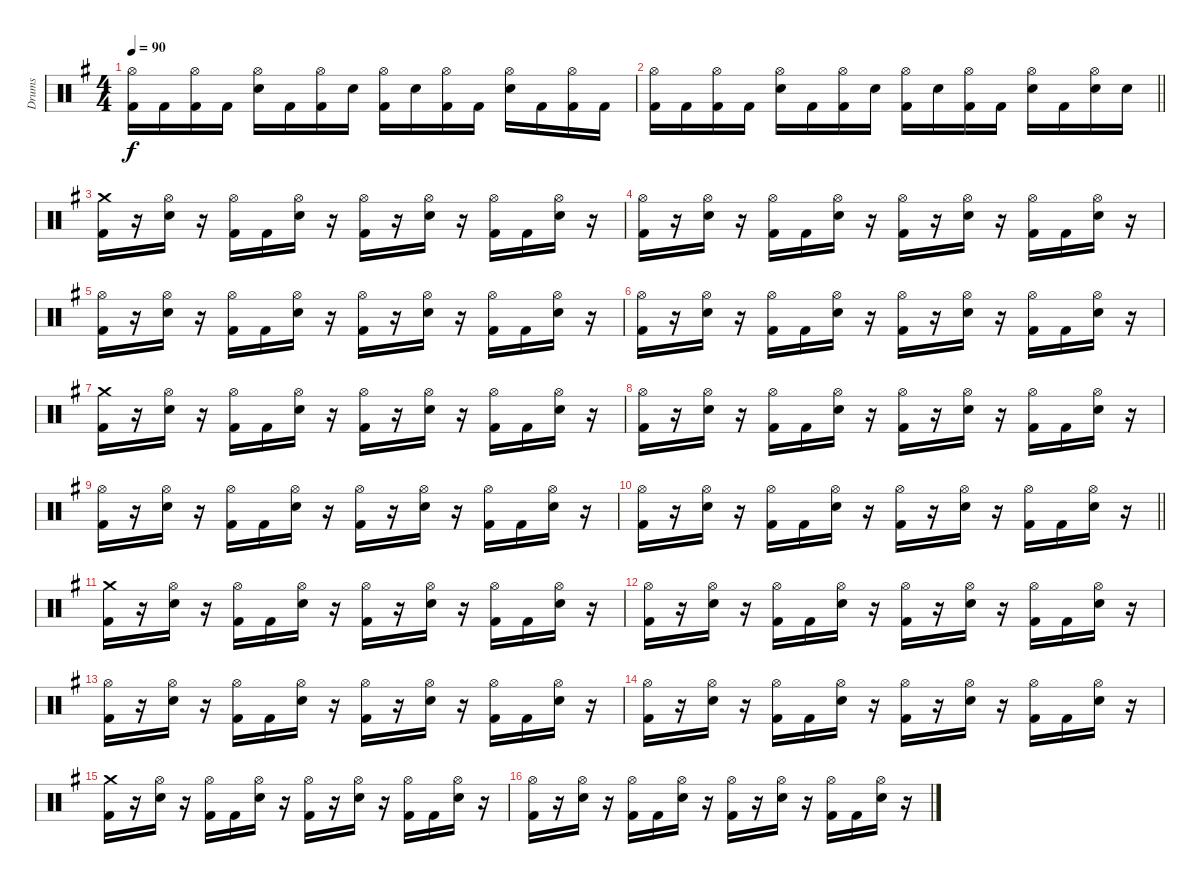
\track ("Drums" "Drums") {instrument percussion}
\staff {score}
\articulation defaults
\ts (4 4)
\tempo 90
\clef neutral
\ks eminor
("Kick (hit) 2" "Hi-Hat (open)").16{dy f} "Kick (hit) 2".16 ("Kick (hit) 2" "Hi-Hat (open)").16 "Kick (hit) 2".16 ("Electric Snare (hit)" "Hi-Hat (open)").16 "Kick (hit) 2".16 ("Kick (hit) 2" "Hi-Hat (open)").16 "Electric Snare (hit)".16 ("Kick (hit) 2" "Hi-Hat (open)").16 "Electric Snare (hit)".16 ("Kick (hit) 2" "Hi-Hat (open)").16 "Kick (hit) 2".16 ("Electric Snare (hit)" "Hi-Hat (open)").16 "Kick (hit) 2".16 ("Kick (hit) 2" "Hi-Hat (open)").16 "Kick (hit) 2".16 |
\barLineRight lightlight
("Kick (hit) 2" "Hi-Hat (open)").16 "Kick (hit) 2".16 ("Kick (hit) 2" "Hi-Hat (open)").16 "Kick (hit) 2".16 ("Electric Snare (hit)" "Hi-Hat (open)").16 "Kick (hit) 2".16 ("Kick (hit) 2" "Hi-Hat (open)").16 "Electric Snare (hit)".16 ("Kick (hit) 2" "Hi-Hat (open)").16 "Electric Snare (hit)".16 ("Kick (hit) 2" "Hi-Hat (open)").16 "Kick (hit) 2".16 ("Electric Snare (hit)" "Hi-Hat (open)").16 "Kick (hit) 2".16 ("Electric Snare (hit)" "Hi-Hat (open)").16 "Electric Snare (hit)".16 |
("Kick (hit) 2" "Crash medium (hit)").16 r.16 ("Electric Snare (hit)" "Hi-Hat (open)").16 r.16 ("Kick (hit) 2" "Hi-Hat (open)").16 "Kick (hit) 2".16 ("Electric Snare (hit)" "Hi-Hat (open)").16 r.16 ("Kick (hit) 2" "Hi-Hat (open)").16 r.16 ("Electric Snare (hit)" "Hi-Hat (open)").16 r.16 ("Kick (hit) 2" "Hi-Hat (open)").16 "Kick (hit) 2".16 ("Electric Snare (hit)" "Hi-Hat (open)").16 r.16 |
("Kick (hit) 2" "Hi-Hat (open)").16 r.16 ("Electric Snare (hit)" "Hi-Hat (open)").16 r.16 ("Kick (hit) 2" "Hi-Hat (open)").16 "Kick (hit) 2".16 ("Electric Snare (hit)" "Hi-Hat (open)").16 r.16 ("Kick (hit) 2" "Hi-Hat (open)").16 r.16 ("Electric Snare (hit)" "Hi-Hat (open)").16 r.16 ("Kick (hit) 2" "Hi-Hat (open)").16 "Kick (hit) 2".16 ("Electric Snare (hit)" "Hi-Hat (open)").16 r.16 |
("Kick (hit) 2" "Hi-Hat (open)").16 r.16 ("Electric Snare (hit)" "Hi-Hat (open)").16 r.16 ("Kick (hit) 2" "Hi-Hat (open)").16 "Kick (hit) 2".16 ("Electric Snare (hit)" "Hi-Hat (open)").16 r.16 ("Kick (hit) 2" "Hi-Hat (open)").16 r.16 ("Electric Snare (hit)" "Hi-Hat (open)").16 r.16 ("Kick (hit) 2" "Hi-Hat (open)").16 "Kick (hit) 2".16 ("Electric Snare (hit)" "Hi-Hat (open)").16 r.16 |
("Kick (hit) 2" "Hi-Hat (open)").16 r.16 ("Electric Snare (hit)" "Hi-Hat (open)").16 r.16 ("Kick (hit) 2" "Hi-Hat (open)").16 "Kick (hit) 2".16 ("Electric Snare (hit)" "Hi-Hat (open)").16 r.16 ("Kick (hit) 2" "Hi-Hat (open)").16 r.16 ("Electric Snare (hit)" "Hi-Hat (open)").16 r.16 ("Kick (hit) 2" "Hi-Hat (open)").16 "Kick (hit) 2".16 ("Electric Snare (hit)" "Hi-Hat (open)").16 r.16 |
("Kick (hit) 2" "Crash medium (hit)").16 r.16 ("Electric Snare (hit)" "Hi-Hat (open)").16 r.16 ("Kick (hit) 2" "Hi-Hat (open)").16 "Kick (hit) 2".16 ("Electric Snare (hit)" "Hi-Hat (open)").16 r.16 ("Kick (hit) 2" "Hi-Hat (open)").16 r.16 ("Electric Snare (hit)" "Hi-Hat (open)").16 r.16 ("Kick (hit) 2" "Hi-Hat (open)").16 "Kick (hit) 2".16 ("Electric Snare (hit)" "Hi-Hat (open)").16 r.16 |
("Kick (hit) 2" "Hi-Hat (open)").16 r.16 ("Electric Snare (hit)" "Hi-Hat (open)").16 r.16 ("Kick (hit) 2" "Hi-Hat (open)").16 "Kick (hit) 2".16 ("Electric Snare (hit)" "Hi-Hat (open)").16 r.16 ("Kick (hit) 2" "Hi-Hat (open)").16 r.16 ("Electric Snare (hit)" "Hi-Hat (open)").16 r.16 ("Kick (hit) 2" "Hi-Hat (open)").16 "Kick (hit) 2".16 ("Electric Snare (hit)" "Hi-Hat (open)").16 r.16 |
("Kick (hit) 2" "Hi-Hat (open)").16 r.16 ("Electric Snare (hit)" "Hi-Hat (open)").16 r.16 ("Kick (hit) 2" "Hi-Hat (open)").16 "Kick (hit) 2".16 ("Electric Snare (hit)" "Hi-Hat (open)").16 r.16 ("Kick (hit) 2" "Hi-Hat (open)").16 r.16 ("Electric Snare (hit)" "Hi-Hat (open)").16 r.16 ("Kick (hit) 2" "Hi-Hat (open)").16 "Kick (hit) 2".16 ("Electric Snare (hit)" "Hi-Hat (open)").16 r.16 |
\barLineRight lightlight
("Kick (hit) 2" "Hi-Hat (open)").16 r.16 ("Electric Snare (hit)" "Hi-Hat (open)").16 r.16 ("Kick (hit) 2" "Hi-Hat (open)").16 "Kick (hit) 2".16 ("Electric Snare (hit)" "Hi-Hat (open)").16 r.16 ("Kick (hit) 2" "Hi-Hat (open)").16 r.16 ("Electric Snare (hit)" "Hi-Hat (open)").16 r.16 ("Kick (hit) 2" "Hi-Hat (open)").16 "Kick (hit) 2".16 ("Electric Snare (hit)" "Hi-Hat (open)").16 r.16 |
("Kick (hit) 2" "Crash medium (hit)").16 r.16 ("Electric Snare (hit)" "Hi-Hat (open)").16 r.16 ("Kick (hit) 2" "Hi-Hat (open)").16 "Kick (hit) 2".16 ("Electric Snare (hit)" "Hi-Hat (open)").16 r.16 ("Kick (hit) 2" "Hi-Hat (open)").16 r.16 ("Electric Snare (hit)" "Hi-Hat (open)").16 r.16 ("Kick (hit) 2" "Hi-Hat (open)").16 "Kick (hit) 2".16 ("Electric Snare (hit)" "Hi-Hat (open)").16 r.16 |
("Kick (hit) 2" "Hi-Hat (open)").16 r.16 ("Electric Snare (hit)" "Hi-Hat (open)").16 r.16 ("Kick (hit) 2" "Hi-Hat (open)").16 "Kick (hit) 2".16 ("Electric Snare (hit)" "Hi-Hat (open)").16 r.16 ("Kick (hit) 2" "Hi-Hat (open)").16 r.16 ("Electric Snare (hit)" "Hi-Hat (open)").16 r.16 ("Kick (hit) 2" "Hi-Hat (open)").16 "Kick (hit) 2".16 ("Electric Snare (hit)" "Hi-Hat (open)").16 r.16 |
("Kick (hit) 2" "Hi-Hat (open)").16 r.16 ("Electric Snare (hit)" "Hi-Hat (open)").16 r.16 ("Kick (hit) 2" "Hi-Hat (open)").16 "Kick (hit) 2".16 ("Electric Snare (hit)" "Hi-Hat (open)").16 r.16 ("Kick (hit) 2" "Hi-Hat (open)").16 r.16 ("Electric Snare (hit)" "Hi-Hat (open)").16 r.16 ("Kick (hit) 2" "Hi-Hat (open)").16 "Kick (hit) 2".16 ("Electric Snare (hit)" "Hi-Hat (open)").16 r.16 |
("Kick (hit) 2" "Hi-Hat (open)").16 r.16 ("Electric Snare (hit)" "Hi-Hat (open)").16 r.16 ("Kick (hit) 2" "Hi-Hat (open)").16 "Kick (hit) 2".16 ("Electric Snare (hit)" "Hi-Hat (open)").16 r.16 ("Kick (hit) 2" "Hi-Hat (open)").16 r.16 ("Electric Snare (hit)" "Hi-Hat (open)").16 r.16 ("Kick (hit) 2" "Hi-Hat (open)").16 "Kick (hit) 2".16 ("Electric Snare (hit)" "Hi-Hat (open)").16 r.16 |
("Kick (hit) 2" "Crash medium (hit)").16 r.16 ("Electric Snare (hit)" "Hi-Hat (open)").16 r.16 ("Kick (hit) 2" "Hi-Hat (open)").16 "Kick (hit) 2".16 ("Electric Snare (hit)" "Hi-Hat (open)").16 r.16 ("Kick (hit) 2" "Hi-Hat (open)").16 r.16 ("Electric Snare (hit)" "Hi-Hat (open)").16 r.16 ("Kick (hit) 2" "Hi-Hat (open)").16 "Kick (hit) 2".16 ("Electric Snare (hit)" "Hi-Hat (open)").16 r.16 |
("Kick (hit) 2" "Hi-Hat (open)").16 r.16 ("Electric Snare (hit)" "Hi-Hat (open)").16 r.16 ("Kick (hit) 2" "Hi-Hat (open)").16 "Kick (hit) 2".16 ("Electric Snare (hit)" "Hi-Hat (open)").16 r.16 ("Kick (hit) 2" "Hi-Hat (open)").16 r.16 ("Electric Snare (hit)" "Hi-Hat (open)").16 r.16 ("Kick (hit) 2" "Hi-Hat (open)").16 "Kick (hit) 2".16 ("Electric Snare (hit)" "Hi-Hat (open)").16 r.16
